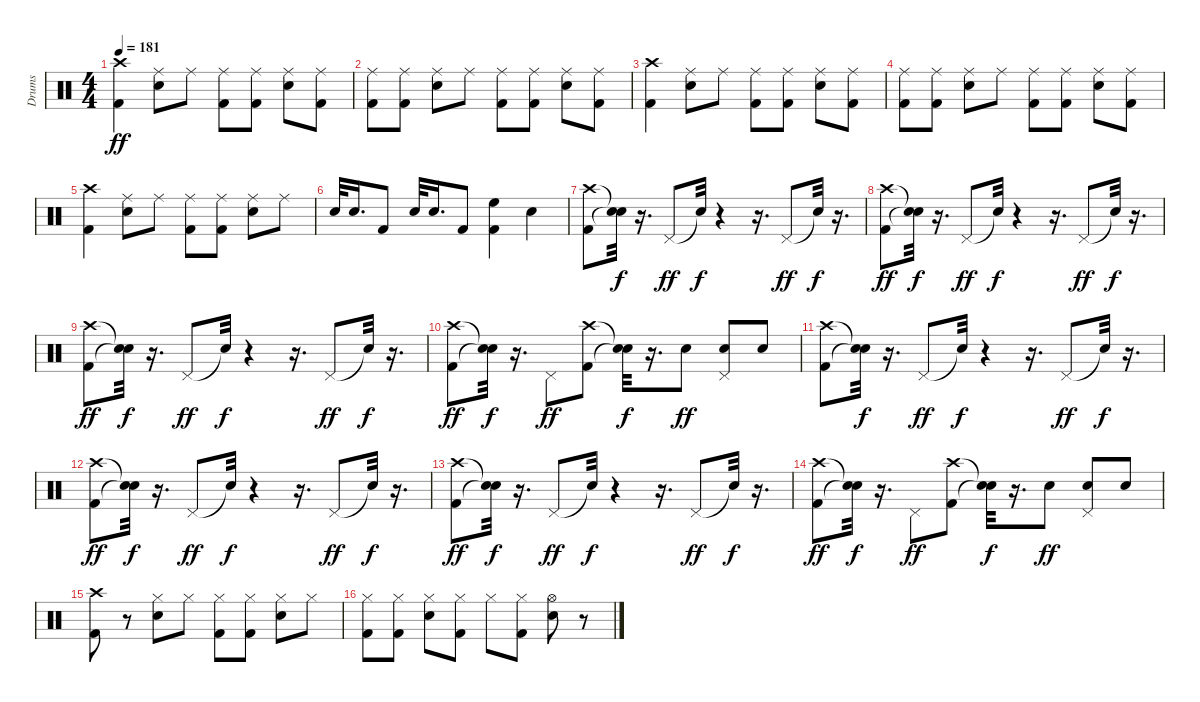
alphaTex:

\track ("Drums" "Drums") {instrument percussion}
\staff {score}
\articulation defaults
\ts (4 4)
\tempo 181
\clef neutral
\ks c
("Kick (hit) 2" "Crash high (hit)").4{dy ff} ("Snare (hit) 2" "Ride (middle)").8 "Ride (middle)".8 ("Kick (hit) 2" "Ride (middle)").8 ("Kick (hit) 2" "Ride (middle)").8 ("Snare (hit) 2" "Ride (middle)").8 ("Kick (hit) 2" "Ride (middle)").8 |
("Kick (hit) 2" "Ride (middle)").8 ("Kick (hit) 2" "Ride (middle)").8 ("Snare (hit) 2" "Ride (middle)").8 "Ride (middle)".8 ("Kick (hit) 2" "Ride (middle)").8 ("Kick (hit) 2" "Ride (middle)").8 ("Snare (hit) 2" "Ride (middle)").8 ("Kick (hit) 2" "Ride (middle)").8 |
("Kick (hit) 2" "Crash high (hit)").4 ("Snare (hit) 2" "Ride (middle)").8 "Ride (middle)".8 ("Kick (hit) 2" "Ride (middle)").8 ("Kick (hit) 2" "Ride (middle)").8 ("Snare (hit) 2" "Ride (middle)").8 ("Kick (hit) 2" "Ride (middle)").8 |
("Kick (hit) 2" "Ride (middle)").8 ("Kick (hit) 2" "Ride (middle)").8 ("Snare (hit) 2" "Ride (middle)").8 "Ride (middle)".8 ("Kick (hit) 2" "Ride (middle)").8 ("Kick (hit) 2" "Ride (middle)").8 ("Snare (hit) 2" "Ride (middle)").8 ("Kick (hit) 2" "Ride (middle)").8 |
("Kick (hit) 2" "Crash high (hit)").4 ("Snare (hit) 2" "Ride (middle)").8 "Ride (middle)".8 ("Kick (hit) 2" "Ride (middle)").8 ("Kick (hit) 2" "Ride (middle)").8 ("Snare (hit) 2" "Ride (middle)").8 "Ride (middle)".8 |
"Snare (hit) 2".32 "Snare (hit) 2".16{d} "Kick (hit) 2".8 "Snare (hit) 2".32 "Snare (hit) 2".16{d} "Kick (hit) 2".8 ("Kick (hit) 2" "High Floor Tom (hit)").4 "Snare (hit) 2".4 |
("Kick (hit) 2" "Crash high (hit)").8 ("Snare (hit)"{t} "Snare (hit)"{t}).32{dy f} r.16{d} "Pedal Hi-Hat (hit)".8{dy ff} "Snare (hit)"{t}.32{dy f} r.4 r.16{d} "Pedal Hi-Hat (hit)".8{dy ff} "Snare (hit)"{t}.32{dy f} r.16{d} |
("Kick (hit) 2" "Crash high (hit)").8{dy ff} ("Snare (hit)"{t} "Snare (hit)"{t}).32{dy f} r.16{d} "Pedal Hi-Hat (hit)".8{dy ff} "Snare (hit)"{t}.32{dy f} r.4 r.16{d} "Pedal Hi-Hat (hit)".8{dy ff} "Snare (hit)"{t}.32{dy f} r.16{d} |
("Kick (hit) 2" "Crash high (hit)").8{dy ff} ("Snare (hit)"{t} "Snare (hit)"{t}).32{dy f} r.16{d} "Pedal Hi-Hat (hit)".8{dy ff} "Snare (hit)"{t}.32{dy f} r.4 r.16{d} "Pedal Hi-Hat (hit)".8{dy ff} "Snare (hit)"{t}.32{dy f} r.16{d} |
("Kick (hit) 2" "Crash high (hit)").8{dy ff} ("Snare (hit)"{t} "Snare (hit)"{t}).32{dy f} r.16{d} "Pedal Hi-Hat (hit)".8{dy ff} ("Kick (hit) 2" "Crash high (hit)").8 ("Snare (hit)"{t} "Snare (hit)"{t}).32{dy f} r.16{d} "Snare (hit) 2".8{dy ff} ("Snare (hit) 2" "Pedal Hi-Hat (hit)").8 "Snare (hit) 2".8 |
("Kick (hit) 2" "Crash high (hit)").8 ("Snare (hit)"{t} "Snare (hit)"{t}).32{dy f} r.16{d} "Pedal Hi-Hat (hit)".8{dy ff} "Snare (hit)"{t}.32{dy f} r.4 r.16{d} "Pedal Hi-Hat (hit)".8{dy ff} "Snare (hit)"{t}.32{dy f} r.16{d} |
("Kick (hit) 2" "Crash high (hit)").8{dy ff} ("Snare (hit)"{t} "Snare (hit)"{t}).32{dy f} r.16{d} "Pedal Hi-Hat (hit)".8{dy ff} "Snare (hit)"{t}.32{dy f} r.4 r.16{d} "Pedal Hi-Hat (hit)".8{dy ff} "Snare (hit)"{t}.32{dy f} r.16{d} |
("Kick (hit) 2" "Crash high (hit)").8{dy ff} ("Snare (hit)"{t} "Snare (hit)"{t}).32{dy f} r.16{d} "Pedal Hi-Hat (hit)".8{dy ff} "Snare (hit)"{t}.32{dy f} r.4 r.16{d} "Pedal Hi-Hat (hit)".8{dy ff} "Snare (hit)"{t}.32{dy f} r.16{d} |
("Kick (hit) 2" "Crash high (hit)").8{dy ff} ("Snare (hit)"{t} "Snare (hit)"{t}).32{dy f} r.16{d} "Pedal Hi-Hat (hit)".8{dy ff} ("Kick (hit) 2" "Crash high (hit)").8 ("Snare (hit)"{t} "Snare (hit)"{t}).32{dy f} r.16{d} "Snare (hit) 2".8{dy ff} ("Snare (hit) 2" "Pedal Hi-Hat (hit)").8 "Snare (hit) 2".8 |
("Kick (hit) 2" "Crash high (hit)").8 r.8 ("Snare (hit) 2" "Hi-Hat (closed)").8 "Hi-Hat (closed)".8 ("Kick (hit) 2" "Hi-Hat (closed)").8 ("Kick (hit) 2" "Hi-Hat (closed)").8 ("Snare (hit) 2" "Hi-Hat (closed)").8 "Hi-Hat (closed)".8 |
("Kick (hit) 2" "Hi-Hat (closed)").8 ("Kick (hit) 2" "Hi-Hat (closed)").8 ("Snare (hit) 2" "Hi-Hat (closed)").8 ("Kick (hit) 2" "Hi-Hat (closed)").8 "Hi-Hat (closed)".8 ("Kick (hit) 2" "Hi-Hat (closed)").8 ("Snare (hit) 2" "Hi-Hat (open)").8 r.8
